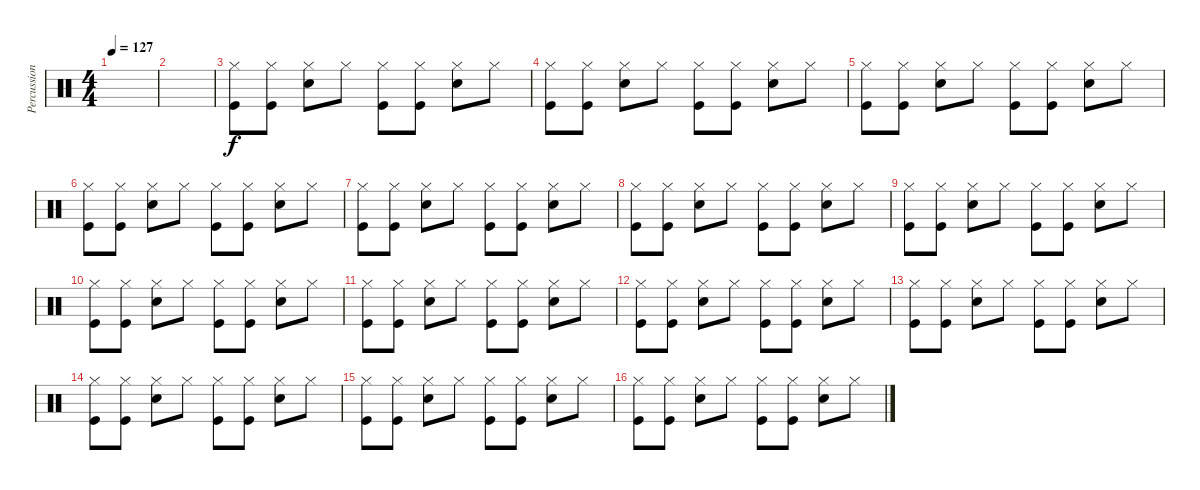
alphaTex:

\track ("Percussion" "Percussion") {instrument percussion}
\staff {score}
\articulation defaults
\ts (4 4)
\tempo 127
\clef neutral
\ks c
|
|
("Hi-Hat (closed)" "Kick (hit)").8 ("Hi-Hat (closed)" "Kick (hit)").8 ("Hi-Hat (closed)" "Snare (hit) 2").8 "Hi-Hat (closed)".8 ("Hi-Hat (closed)" "Kick (hit)").8 ("Hi-Hat (closed)" "Kick (hit)").8 ("Hi-Hat (closed)" "Snare (hit) 2").8 "Hi-Hat (closed)".8 |
("Hi-Hat (closed)" "Kick (hit)").8 ("Hi-Hat (closed)" "Kick (hit)").8 ("Hi-Hat (closed)" "Snare (hit) 2").8 "Hi-Hat (closed)".8 ("Hi-Hat (closed)" "Kick (hit)").8 ("Hi-Hat (closed)" "Kick (hit)").8 ("Hi-Hat (closed)" "Snare (hit) 2").8 "Hi-Hat (closed)".8 |
("Hi-Hat (closed)" "Kick (hit)").8 ("Hi-Hat (closed)" "Kick (hit)").8 ("Hi-Hat (closed)" "Snare (hit) 2").8 "Hi-Hat (closed)".8 ("Hi-Hat (closed)" "Kick (hit)").8 ("Hi-Hat (closed)" "Kick (hit)").8 ("Hi-Hat (closed)" "Snare (hit) 2").8 "Hi-Hat (closed)".8 |
("Hi-Hat (closed)" "Kick (hit)").8 ("Hi-Hat (closed)" "Kick (hit)").8 ("Hi-Hat (closed)" "Snare (hit) 2").8 "Hi-Hat (closed)".8 ("Hi-Hat (closed)" "Kick (hit)").8 ("Hi-Hat (closed)" "Kick (hit)").8 ("Hi-Hat (closed)" "Snare (hit) 2").8 "Hi-Hat (closed)".8 |
("Hi-Hat (closed)" "Kick (hit)").8 ("Hi-Hat (closed)" "Kick (hit)").8 ("Hi-Hat (closed)" "Snare (hit) 2").8 "Hi-Hat (closed)".8 ("Hi-Hat (closed)" "Kick (hit)").8 ("Hi-Hat (closed)" "Kick (hit)").8 ("Hi-Hat (closed)" "Snare (hit) 2").8 "Hi-Hat (closed)".8 |
("Hi-Hat (closed)" "Kick (hit)").8 ("Hi-Hat (closed)" "Kick (hit)").8 ("Hi-Hat (closed)" "Snare (hit) 2").8 "Hi-Hat (closed)".8 ("Hi-Hat (closed)" "Kick (hit)").8 ("Hi-Hat (closed)" "Kick (hit)").8 ("Hi-Hat (closed)" "Snare (hit) 2").8 "Hi-Hat (closed)".8 |
("Hi-Hat (closed)" "Kick (hit)").8 ("Hi-Hat (closed)" "Kick (hit)").8 ("Hi-Hat (closed)" "Snare (hit) 2").8 "Hi-Hat (closed)".8 ("Hi-Hat (closed)" "Kick (hit)").8 ("Hi-Hat (closed)" "Kick (hit)").8 ("Hi-Hat (closed)" "Snare (hit) 2").8 "Hi-Hat (closed)".8 |
("Hi-Hat (closed)" "Kick (hit)").8 ("Hi-Hat (closed)" "Kick (hit)").8 ("Hi-Hat (closed)" "Snare (hit) 2").8 "Hi-Hat (closed)".8 ("Hi-Hat (closed)" "Kick (hit)").8 ("Hi-Hat (closed)" "Kick (hit)").8 ("Hi-Hat (closed)" "Snare (hit) 2").8 "Hi-Hat (closed)".8 |
("Hi-Hat (closed)" "Kick (hit)").8 ("Hi-Hat (closed)" "Kick (hit)").8 ("Hi-Hat (closed)" "Snare (hit) 2").8 "Hi-Hat (closed)".8 ("Hi-Hat (closed)" "Kick (hit)").8 ("Hi-Hat (closed)" "Kick (hit)").8 ("Hi-Hat (closed)" "Snare (hit) 2").8 "Hi-Hat (closed)".8 |
("Hi-Hat (closed)" "Kick (hit)").8 ("Hi-Hat (closed)" "Kick (hit)").8 ("Hi-Hat (closed)" "Snare (hit) 2").8 "Hi-Hat (closed)".8 ("Hi-Hat (closed)" "Kick (hit)").8 ("Hi-Hat (closed)" "Kick (hit)").8 ("Hi-Hat (closed)" "Snare (hit) 2").8 "Hi-Hat (closed)".8 |
("Hi-Hat (closed)" "Kick (hit)").8 ("Hi-Hat (closed)" "Kick (hit)").8 ("Hi-Hat (closed)" "Snare (hit) 2").8 "Hi-Hat (closed)".8 ("Hi-Hat (closed)" "Kick (hit)").8 ("Hi-Hat (closed)" "Kick (hit)").8 ("Hi-Hat (closed)" "Snare (hit) 2").8 "Hi-Hat (closed)".8 |
("Hi-Hat (closed)" "Kick (hit)").8 ("Hi-Hat (closed)" "Kick (hit)").8 ("Hi-Hat (closed)" "Snare (hit) 2").8 "Hi-Hat (closed)".8 ("Hi-Hat (closed)" "Kick (hit)").8 ("Hi-Hat (closed)" "Kick (hit)").8 ("Hi-Hat (closed)" "Snare (hit) 2").8 "Hi-Hat (closed)".8 |
("Hi-Hat (closed)" "Kick (hit)").8 ("Hi-Hat (closed)" "Kick (hit)").8 ("Hi-Hat (closed)" "Snare (hit) 2").8 "Hi-Hat (closed)".8 ("Hi-Hat (closed)" "Kick (hit)").8 ("Hi-Hat (closed)" "Kick (hit)").8 ("Hi-Hat (closed)" "Snare (hit) 2").8 "Hi-Hat (closed)".8 |
("Hi-Hat (closed)" "Kick (hit)").8 ("Hi-Hat (closed)" "Kick (hit)").8 ("Hi-Hat (closed)" "Snare (hit) 2").8 "Hi-Hat (closed)".8 ("Hi-Hat (closed)" "Kick (hit)").8 ("Hi-Hat (closed)" "Kick (hit)").8 ("Hi-Hat (closed)" "Snare (hit) 2").8 "Hi-Hat (closed)".8
